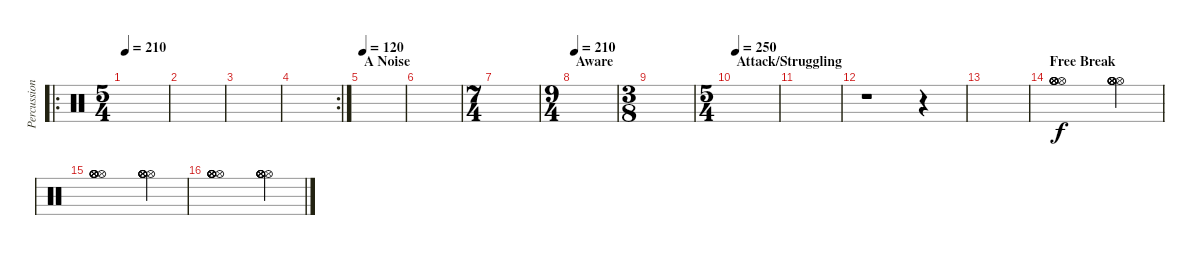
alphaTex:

\track ("Percussion" "Percussion") {instrument percussion}
\staff {score}
\articulation defaults
\ro
\ts (5 4)
\tempo 210
\clef neutral
\ks c
|
|
|
\rc 2
|
\section ("" "A Noise")
\tempo 120
|
|
\ts (7 4)
|
\ts (9 4)
\section ("" "Aware")
\tempo 210
|
\ts (3 8)
|
\ts (5 4)
\section ("" "Attack/Struggling")
\tempo 250
|
|
r.1 r.4 |
|
\section ("" "Free Break")
("Hi-Hat (open)" "Hi-Hat (open)" "Hi-Hat (open)" "Hi-Hat (open)" "Hi-Hat (open)" "Hi-Hat (open)").1 ("Hi-Hat (open)" "Hi-Hat (open)" "Hi-Hat (open)" "Hi-Hat (open)" "Hi-Hat (open)" "Hi-Hat (open)").4 |
("Hi-Hat (open)" "Hi-Hat (open)" "Hi-Hat (open)" "Hi-Hat (open)" "Hi-Hat (open)" "Hi-Hat (open)").1 ("Hi-Hat (open)" "Hi-Hat (open)" "Hi-Hat (open)" "Hi-Hat (open)" "Hi-Hat (open)" "Hi-Hat (open)").4 |
("Hi-Hat (open)" "Hi-Hat (open)" "Hi-Hat (open)" "Hi-Hat (open)" "Hi-Hat (open)" "Hi-Hat (open)").1 ("Hi-Hat (open)" "Hi-Hat (open)" "Hi-Hat (open)" "Hi-Hat (open)" "Hi-Hat (open)" "Hi-Hat (open)").4
